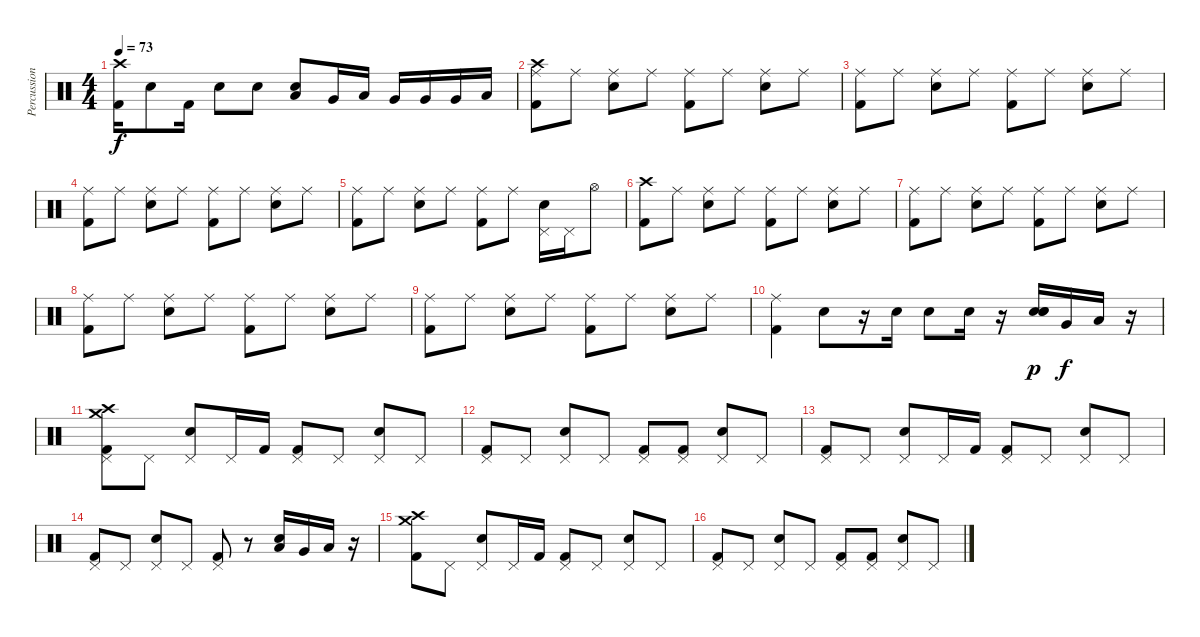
\track ("Percussions" "Percussion") {instrument percussion}
\staff {score}
\articulation defaults
\ts (4 4)
\tempo 73
\clef neutral
\ks c
("Kick (hit) 2" "Crash high (hit)").16{dy f} "Snare (hit) 2".8 "Kick (hit) 2".16 "Snare (hit) 2".8 "Snare (hit) 2".8 ("Snare (hit) 2" "Low Floor Tom (hit)").8 "Very Low Tom (hit)".16 "Low Tom (hit)".16 "Very Low Tom (hit)".16 "Very Low Tom (hit)".16 "Very Low Tom (hit)".16 "Low Floor Tom (hit)".16 |
("Crash high (hit)" "Kick (hit) 2" "Ride (middle)").8 "Ride (middle)".8 ("Ride (middle)" "Electric Snare (hit)").8 "Ride (middle)".8 ("Ride (middle)" "Kick (hit) 2").8 "Ride (middle)".8 ("Ride (middle)" "Electric Snare (hit)").8 "Ride (middle)".8 |
("Ride (middle)" "Kick (hit) 2").8 "Ride (middle)".8 ("Ride (middle)" "Electric Snare (hit)").8 "Ride (middle)".8 ("Ride (middle)" "Kick (hit) 2").8 "Ride (middle)".8 ("Ride (middle)" "Electric Snare (hit)").8 "Ride (middle)".8 |
("Ride (middle)" "Kick (hit) 2").8 "Ride (middle)".8 ("Ride (middle)" "Electric Snare (hit)").8 "Ride (middle)".8 ("Ride (middle)" "Kick (hit) 2").8 "Ride (middle)".8 ("Ride (middle)" "Electric Snare (hit)").8 "Ride (middle)".8 |
("Kick (hit) 2" "Ride (middle)").8 "Ride (middle)".8 ("Ride (middle)" "Electric Snare (hit)").8 "Ride (middle)".8 ("Ride (middle)" "Kick (hit) 2").8 "Ride (middle)".8 ("Pedal Hi-Hat (hit)" "Electric Snare (hit)").16 "Pedal Hi-Hat (hit)".16 "Hi-Hat (open)".8 |
("Kick (hit) 2" "Crash high (hit)").8 "Ride (middle)".8 ("Ride (middle)" "Electric Snare (hit)").8 "Ride (middle)".8 ("Ride (middle)" "Kick (hit) 2").8 "Ride (middle)".8 ("Ride (middle)" "Electric Snare (hit)").8 "Ride (middle)".8 |
("Kick (hit) 2" "Ride (middle)").8 "Ride (middle)".8 ("Ride (middle)" "Electric Snare (hit)").8 "Ride (middle)".8 ("Ride (middle)" "Kick (hit) 2").8 "Ride (middle)".8 ("Ride (middle)" "Electric Snare (hit)").8 "Ride (middle)".8 |
("Kick (hit) 2" "Ride (middle)").8 "Ride (middle)".8 ("Ride (middle)" "Electric Snare (hit)").8 "Ride (middle)".8 ("Ride (middle)" "Kick (hit) 2").8 "Ride (middle)".8 ("Ride (middle)" "Electric Snare (hit)").8 "Ride (middle)".8 |
("Kick (hit) 2" "Ride (middle)").8 "Ride (middle)".8 ("Ride (middle)" "Electric Snare (hit)").8 "Ride (middle)".8 ("Ride (middle)" "Kick (hit) 2").8 "Ride (middle)".8 ("Ride (middle)" "Electric Snare (hit)").8 "Ride (middle)".8 |
("Kick (hit) 2" "Ride (middle)").4 "Snare (hit) 2".8 r.16 "Snare (hit) 2".16 "Snare (hit) 2".8 "Snare (hit) 2".16 r.16 ("Electric Snare (hit)" "Electric Snare (hit)" "Electric Snare (hit)").16{dy p} "Very Low Tom (hit)".16{dy f} "Low Floor Tom (hit)".16 r.16 |
("Crash medium (hit)" "Crash high (hit)" "Pedal Hi-Hat (hit)" "Kick (hit) 2").8 "Pedal Hi-Hat (hit)".8 ("Pedal Hi-Hat (hit)" "Electric Snare (hit)").8 "Pedal Hi-Hat (hit)".16 "Kick (hit) 2".16 ("Pedal Hi-Hat (hit)" "Kick (hit) 2").8 "Pedal Hi-Hat (hit)".8 ("Pedal Hi-Hat (hit)" "Electric Snare (hit)").8 "Pedal Hi-Hat (hit)".8 |
("Pedal Hi-Hat (hit)" "Kick (hit) 2").8 "Pedal Hi-Hat (hit)".8 ("Pedal Hi-Hat (hit)" "Electric Snare (hit)").8 "Pedal Hi-Hat (hit)".8 ("Pedal Hi-Hat (hit)" "Kick (hit) 2").8 ("Pedal Hi-Hat (hit)" "Kick (hit) 2").8 ("Pedal Hi-Hat (hit)" "Electric Snare (hit)").8 "Pedal Hi-Hat (hit)".8 |
("Pedal Hi-Hat (hit)" "Kick (hit) 2").8 "Pedal Hi-Hat (hit)".8 ("Pedal Hi-Hat (hit)" "Electric Snare (hit)").8 "Pedal Hi-Hat (hit)".16 "Kick (hit) 2".16 ("Pedal Hi-Hat (hit)" "Kick (hit) 2").8 "Pedal Hi-Hat (hit)".8 ("Pedal Hi-Hat (hit)" "Electric Snare (hit)").8 "Pedal Hi-Hat (hit)".8 |
("Pedal Hi-Hat (hit)" "Kick (hit) 2").8 "Pedal Hi-Hat (hit)".8 ("Pedal Hi-Hat (hit)" "Electric Snare (hit)").8 "Pedal Hi-Hat (hit)".8 ("Pedal Hi-Hat (hit)" "Kick (hit) 2").8 r.8 ("Low Tom (hit)" "Electric Snare (hit)").16 "Very Low Tom (hit)".16 "Low Floor Tom (hit)".16 r.16 |
("Crash medium (hit)" "Crash high (hit)" "Kick (hit) 2").8 "Pedal Hi-Hat (hit)".8 ("Pedal Hi-Hat (hit)" "Electric Snare (hit)").8 "Pedal Hi-Hat (hit)".16 "Kick (hit) 2".16 ("Pedal Hi-Hat (hit)" "Kick (hit) 2").8 "Pedal Hi-Hat (hit)".8 ("Pedal Hi-Hat (hit)" "Electric Snare (hit)").8 "Pedal Hi-Hat (hit)".8 |
("Pedal Hi-Hat (hit)" "Kick (hit) 2").8 "Pedal Hi-Hat (hit)".8 ("Pedal Hi-Hat (hit)" "Electric Snare (hit)").8 "Pedal Hi-Hat (hit)".8 ("Pedal Hi-Hat (hit)" "Kick (hit) 2").8 ("Pedal Hi-Hat (hit)" "Kick (hit) 2").8 ("Pedal Hi-Hat (hit)" "Electric Snare (hit)").8 "Pedal Hi-Hat (hit)".8
